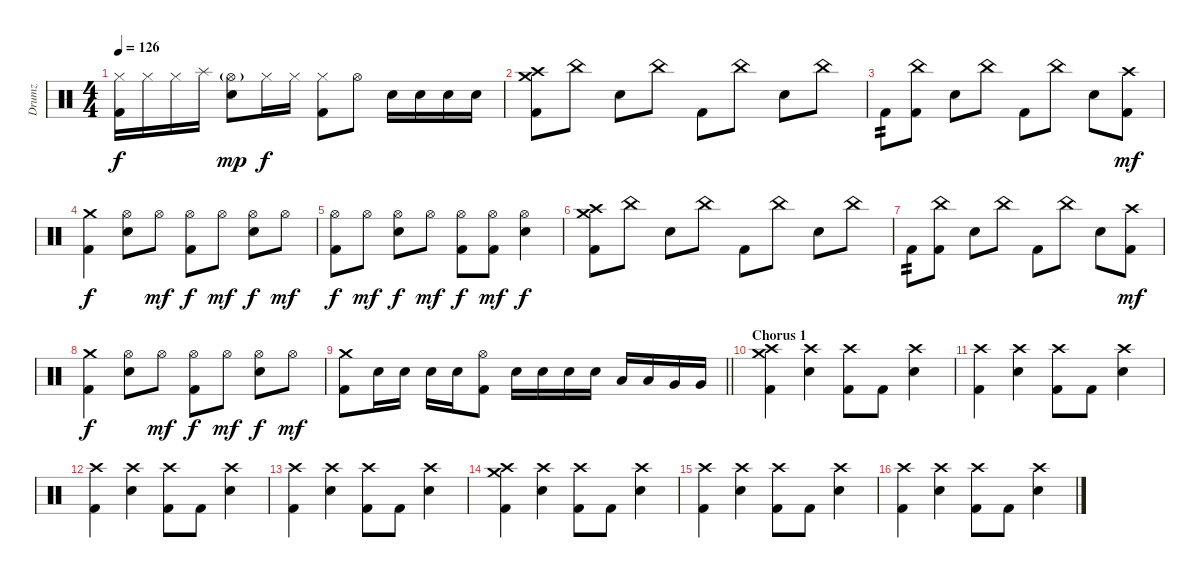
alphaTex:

\track ("Drumz" "Drumz") {instrument percussion}
\staff {score}
\articulation defaults
\ts (4 4)
\tempo 126
\clef neutral
\ks c
("Hi-Hat (closed)" "Kick (hit) 2").16{dy f} "Hi-Hat (closed)".16 "Hi-Hat (closed)".16 "Splash (hit)".16 ("Hi-Hat (open)"{g} "Snare (hit) 2").8{dy mp} "Hi-Hat (closed)".16{dy f} "Hi-Hat (closed)".16 ("Hi-Hat (closed)" "Kick (hit) 2").8 "Hi-Hat (open)".8 "Snare (hit) 2".16 "Snare (hit) 2".16 "Snare (hit) 2".16 "Snare (hit) 2".16 |
("Crash medium (hit)" "Crash high (hit)" "Kick (hit) 2").8 "China (hit)".8 "Snare (hit) 2".8 "China (hit)".8 "Kick (hit) 2".8 "China (hit)".8 "Snare (hit) 2".8 "China (hit)".8 |
"Kick (hit) 2".8{tp 2} ("China (hit)" "Kick (hit) 2").8 "Snare (hit) 2".8 "China (hit)".8 "Kick (hit) 2".8 "China (hit)".8 "Snare (hit) 2".8 ("Crash high (hit)" "Kick (hit) 2").8{dy mf} |
("Crash medium (hit)" "Kick (hit) 2").4{dy f} ("Hi-Hat (open)" "Snare (hit) 2").8 "Hi-Hat (open)".8{dy mf} ("Hi-Hat (open)" "Kick (hit) 2").8{dy f} "Hi-Hat (open)".8{dy mf} ("Hi-Hat (open)" "Snare (hit) 2").8{dy f} "Hi-Hat (open)".8{dy mf} |
("Hi-Hat (open)" "Kick (hit) 2").8{dy f} "Hi-Hat (open)".8{dy mf} ("Hi-Hat (open)" "Snare (hit) 2").8{dy f} "Hi-Hat (open)".8{dy mf} ("Hi-Hat (open)" "Kick (hit) 2").8{dy f} ("Hi-Hat (open)" "Kick (hit) 2").8{dy mf} ("Hi-Hat (open)" "Snare (hit) 2").4{dy f} |
("Crash medium (hit)" "Crash high (hit)" "Kick (hit) 2").8 "China (hit)".8 "Snare (hit) 2".8 "China (hit)".8 "Kick (hit) 2".8 "China (hit)".8 "Snare (hit) 2".8 "China (hit)".8 |
"Kick (hit) 2".8{tp 2} ("China (hit)" "Kick (hit) 2").8 "Snare (hit) 2".8 "China (hit)".8 "Kick (hit) 2".8 "China (hit)".8 "Snare (hit) 2".8 ("Crash high (hit)" "Kick (hit) 2").8{dy mf} |
("Crash medium (hit)" "Kick (hit) 2").4{dy f} ("Hi-Hat (open)" "Snare (hit) 2").8 "Hi-Hat (open)".8{dy mf} ("Hi-Hat (open)" "Kick (hit) 2").8{dy f} "Hi-Hat (open)".8{dy mf} ("Hi-Hat (open)" "Snare (hit) 2").8{dy f} "Hi-Hat (open)".8{dy mf} |
\barLineRight lightlight
("Crash medium (hit)" "Kick (hit) 2").8 "Snare (hit) 2".16 "Snare (hit) 2".16 "Snare (hit) 2".16 "Snare (hit) 2".16 ("Hi-Hat (open)" "Kick (hit) 2").8 "Snare (hit) 2".16 "Snare (hit) 2".16 "Snare (hit) 2".16 "Snare (hit) 2".16 "Low Tom (hit)".16 "Low Tom (hit)".16 "Very Low Tom (hit)".16 "Very Low Tom (hit)".16 |
\section ("" "Chorus 1")
("Crash high (hit)" "Crash medium (hit)" "Kick (hit) 2").4 ("Crash high (hit)" "Snare (hit) 2").4 ("Crash high (hit)" "Kick (hit) 2").8 "Kick (hit) 2".8 ("Crash high (hit)" "Snare (hit) 2").4 |
("Crash high (hit)" "Kick (hit) 2").4 ("Crash high (hit)" "Snare (hit) 2").4 ("Crash high (hit)" "Kick (hit) 2").8 "Kick (hit) 2".8 ("Crash high (hit)" "Snare (hit) 2").4 |
("Crash high (hit)" "Kick (hit) 2").4 ("Crash high (hit)" "Snare (hit) 2").4 ("Crash high (hit)" "Kick (hit) 2").8 "Kick (hit) 2".8 ("Crash high (hit)" "Snare (hit) 2").4 |
("Crash high (hit)" "Kick (hit) 2").4 ("Crash high (hit)" "Snare (hit) 2").4 ("Crash high (hit)" "Kick (hit) 2").8 "Kick (hit) 2".8 ("Crash high (hit)" "Snare (hit) 2").4 |
("Crash high (hit)" "Crash medium (hit)" "Kick (hit) 2").4 ("Crash high (hit)" "Snare (hit) 2").4 ("Crash high (hit)" "Kick (hit) 2").8 "Kick (hit) 2".8 ("Crash high (hit)" "Snare (hit) 2").4 |
("Crash high (hit)" "Kick (hit) 2").4 ("Crash high (hit)" "Snare (hit) 2").4 ("Crash high (hit)" "Kick (hit) 2").8 "Kick (hit) 2".8 ("Crash high (hit)" "Snare (hit) 2").4 |
("Crash high (hit)" "Kick (hit) 2").4 ("Crash high (hit)" "Snare (hit) 2").4 ("Crash high (hit)" "Kick (hit) 2").8 "Kick (hit) 2".8 ("Crash high (hit)" "Snare (hit) 2").4
